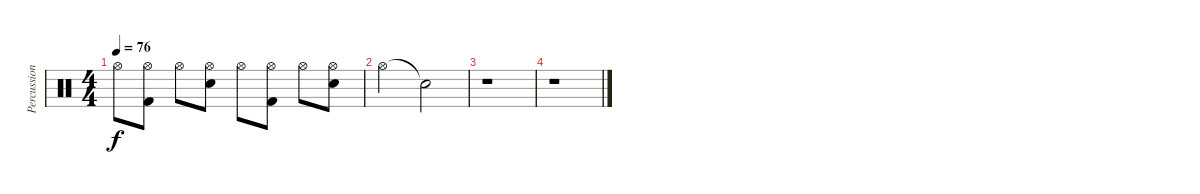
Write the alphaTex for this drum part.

\track ("Percussions" "Percussion") {instrument percussion}
\staff {score}
\articulation defaults
\ts (4 4)
\tempo 76
\clef neutral
\ks c "Hi-Hat (open)".8{dy f}
("Kick (hit) 2" "Hi-Hat (open)").8 "Hi-Hat (open)".8 ("Hi-Hat (open)" "Snare (hit) 2").8 "Hi-Hat (open)".8 ("Kick (hit) 2" "Hi-Hat (open)").8 "Hi-Hat (open)".8 ("Hi-Hat (open)" "Snare (hit) 2").8 |
"Hi-Hat (open)".2 "Snare (hit)"{t}.2 |
r.1 |
r.1
